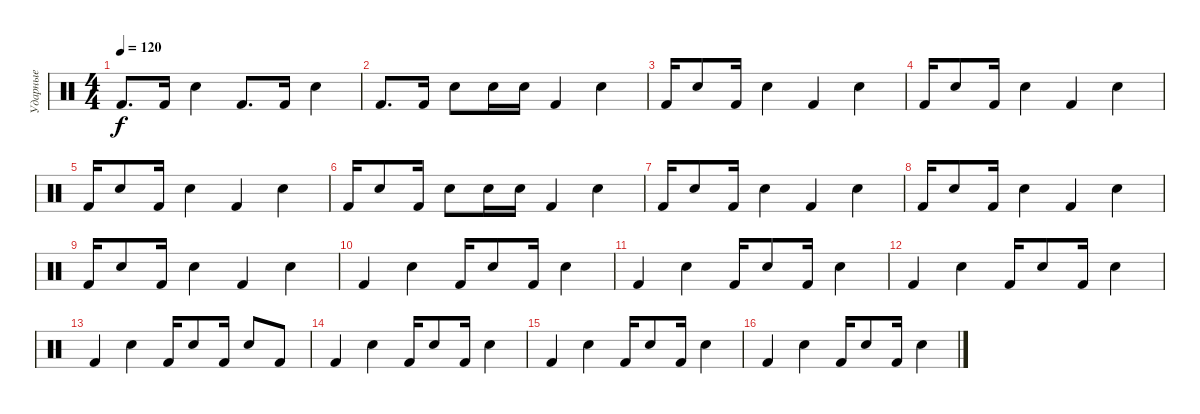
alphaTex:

\track ("Ударные" "Ударные") {instrument percussion}
\staff {score}
\articulation defaults
\ts (4 4)
\tempo 120
\clef neutral
\ks c "Kick (hit) 2".8{d dy f} "Kick (hit) 2".16 "Snare (hit) 2".4 "Kick (hit) 2".8{d} "Kick (hit) 2".16 "Snare (hit) 2".4
|
"Kick (hit) 2".8{d} "Kick (hit) 2".16 "Snare (hit) 2".8 "Snare (hit) 2".16 "Snare (hit) 2".16 "Kick (hit) 2".4 "Snare (hit) 2".4 |
"Kick (hit) 2".16 "Snare (hit) 2".8 "Kick (hit) 2".16 "Snare (hit) 2".4 "Kick (hit) 2".4 "Snare (hit) 2".4 |
"Kick (hit) 2".16 "Snare (hit) 2".8 "Kick (hit) 2".16 "Snare (hit) 2".4 "Kick (hit) 2".4 "Snare (hit) 2".4 |
"Kick (hit) 2".16 "Snare (hit) 2".8 "Kick (hit) 2".16 "Snare (hit) 2".4 "Kick (hit) 2".4 "Snare (hit) 2".4 |
"Kick (hit) 2".16 "Snare (hit) 2".8 "Kick (hit) 2".16 "Snare (hit) 2".8 "Snare (hit) 2".16 "Snare (hit) 2".16 "Kick (hit) 2".4 "Snare (hit) 2".4 |
"Kick (hit) 2".16 "Snare (hit) 2".8 "Kick (hit) 2".16 "Snare (hit) 2".4 "Kick (hit) 2".4 "Snare (hit) 2".4 |
"Kick (hit) 2".16 "Snare (hit) 2".8 "Kick (hit) 2".16 "Snare (hit) 2".4 "Kick (hit) 2".4 "Snare (hit) 2".4 |
"Kick (hit) 2".16 "Snare (hit) 2".8 "Kick (hit) 2".16 "Snare (hit) 2".4 "Kick (hit) 2".4 "Snare (hit) 2".4 |
"Kick (hit) 2".4 "Snare (hit) 2".4 "Kick (hit) 2".16 "Snare (hit) 2".8 "Kick (hit) 2".16 "Snare (hit) 2".4 |
"Kick (hit) 2".4 "Snare (hit) 2".4 "Kick (hit) 2".16 "Snare (hit) 2".8 "Kick (hit) 2".16 "Snare (hit) 2".4 |
"Kick (hit) 2".4 "Snare (hit) 2".4 "Kick (hit) 2".16 "Snare (hit) 2".8 "Kick (hit) 2".16 "Snare (hit) 2".4 |
"Kick (hit) 2".4 "Snare (hit) 2".4 "Kick (hit) 2".16 "Snare (hit) 2".8 "Kick (hit) 2".16 "Snare (hit) 2".8 "Kick (hit) 2".8 |
"Kick (hit) 2".4 "Snare (hit) 2".4 "Kick (hit) 2".16 "Snare (hit) 2".8 "Kick (hit) 2".16 "Snare (hit) 2".4 |
"Kick (hit) 2".4 "Snare (hit) 2".4 "Kick (hit) 2".16 "Snare (hit) 2".8 "Kick (hit) 2".16 "Snare (hit) 2".4 |
"Kick (hit) 2".4 "Snare (hit) 2".4 "Kick (hit) 2".16 "Snare (hit) 2".8 "Kick (hit) 2".16 "Snare (hit) 2".4
